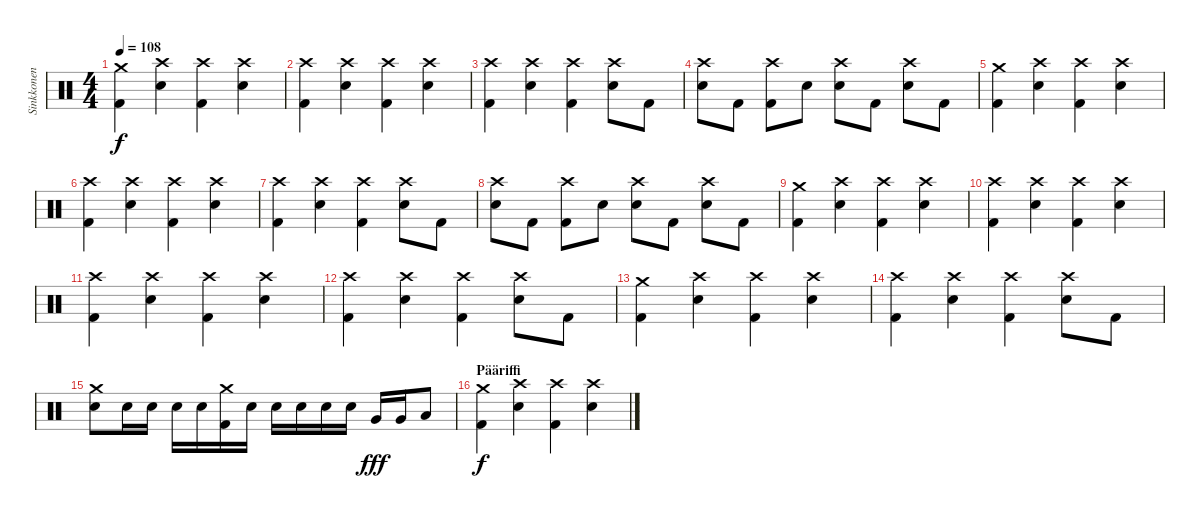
\track ("Sinkkonen" "Sinkkonen") {instrument percussion}
\staff {score}
\articulation defaults
\ts (4 4)
\tempo 108
\clef neutral
\ks c
("Kick (hit) 2" "Crash medium (hit)").4{dy f} ("Crash high (hit)" "Snare (hit) 2").4 ("Kick (hit) 2" "Crash high (hit)").4 ("Crash high (hit)" "Snare (hit) 2").4 |
("Kick (hit) 2" "Crash high (hit)").4 ("Crash high (hit)" "Snare (hit) 2").4 ("Kick (hit) 2" "Crash high (hit)").4 ("Crash high (hit)" "Snare (hit) 2").4 |
("Kick (hit) 2" "Crash high (hit)").4 ("Crash high (hit)" "Snare (hit) 2").4 ("Kick (hit) 2" "Crash high (hit)").4 ("Crash high (hit)" "Snare (hit) 2").8 "Kick (hit) 2".8 |
("Crash high (hit)" "Snare (hit) 2").8 "Kick (hit) 2".8 ("Kick (hit) 2" "Crash high (hit)").8 "Snare (hit) 2".8 ("Crash high (hit)" "Snare (hit) 2").8 "Kick (hit) 2".8 ("Crash high (hit)" "Snare (hit) 2").8 "Kick (hit) 2".8 |
("Kick (hit) 2" "Crash medium (hit)").4 ("Crash high (hit)" "Snare (hit) 2").4 ("Kick (hit) 2" "Crash high (hit)").4 ("Crash high (hit)" "Snare (hit) 2").4 |
("Kick (hit) 2" "Crash high (hit)").4 ("Crash high (hit)" "Snare (hit) 2").4 ("Kick (hit) 2" "Crash high (hit)").4 ("Crash high (hit)" "Snare (hit) 2").4 |
("Kick (hit) 2" "Crash high (hit)").4 ("Crash high (hit)" "Snare (hit) 2").4 ("Kick (hit) 2" "Crash high (hit)").4 ("Crash high (hit)" "Snare (hit) 2").8 "Kick (hit) 2".8 |
("Crash high (hit)" "Snare (hit) 2").8 "Kick (hit) 2".8 ("Kick (hit) 2" "Crash high (hit)").8 "Snare (hit) 2".8 ("Crash high (hit)" "Snare (hit) 2").8 "Kick (hit) 2".8 ("Crash high (hit)" "Snare (hit) 2").8 "Kick (hit) 2".8 |
("Kick (hit) 2" "Crash medium (hit)").4 ("Crash high (hit)" "Snare (hit) 2").4 ("Kick (hit) 2" "Crash high (hit)").4 ("Crash high (hit)" "Snare (hit) 2").4 |
("Kick (hit) 2" "Crash high (hit)").4 ("Crash high (hit)" "Snare (hit) 2").4 ("Kick (hit) 2" "Crash high (hit)").4 ("Crash high (hit)" "Snare (hit) 2").4 |
("Kick (hit) 2" "Crash high (hit)").4 ("Crash high (hit)" "Snare (hit) 2").4 ("Kick (hit) 2" "Crash high (hit)").4 ("Crash high (hit)" "Snare (hit) 2").4 |
("Kick (hit) 2" "Crash high (hit)").4 ("Crash high (hit)" "Snare (hit) 2").4 ("Kick (hit) 2" "Crash high (hit)").4 ("Crash high (hit)" "Snare (hit) 2").8 "Kick (hit) 2".8 |
("Kick (hit) 2" "Crash medium (hit)").4 ("Crash high (hit)" "Snare (hit) 2").4 ("Kick (hit) 2" "Crash high (hit)").4 ("Crash high (hit)" "Snare (hit) 2").4 |
("Kick (hit) 2" "Crash high (hit)").4 ("Crash high (hit)" "Snare (hit) 2").4 ("Kick (hit) 2" "Crash high (hit)").4 ("Crash high (hit)" "Snare (hit) 2").8 "Kick (hit) 2".8 |
("Crash medium (hit)" "Snare (hit) 2").8 "Snare (hit) 2".16 "Snare (hit) 2".16 "Snare (hit) 2".16 "Snare (hit) 2".16 ("Kick (hit) 2" "Crash medium (hit)").16 "Snare (hit) 2".16 "Snare (hit) 2".16 "Snare (hit) 2".16 "Snare (hit) 2".16 "Snare (hit) 2".16 "Very Low Tom (hit)".16{dy fff} "Very Low Tom (hit)".16 "Low Floor Tom (hit)".8 |
\section ("" "Pääriffi")
("Kick (hit) 2" "Crash medium (hit)").4{dy f} ("Crash high (hit)" "Snare (hit) 2").4 ("Kick (hit) 2" "Crash high (hit)").4 ("Crash high (hit)" "Snare (hit) 2").4
